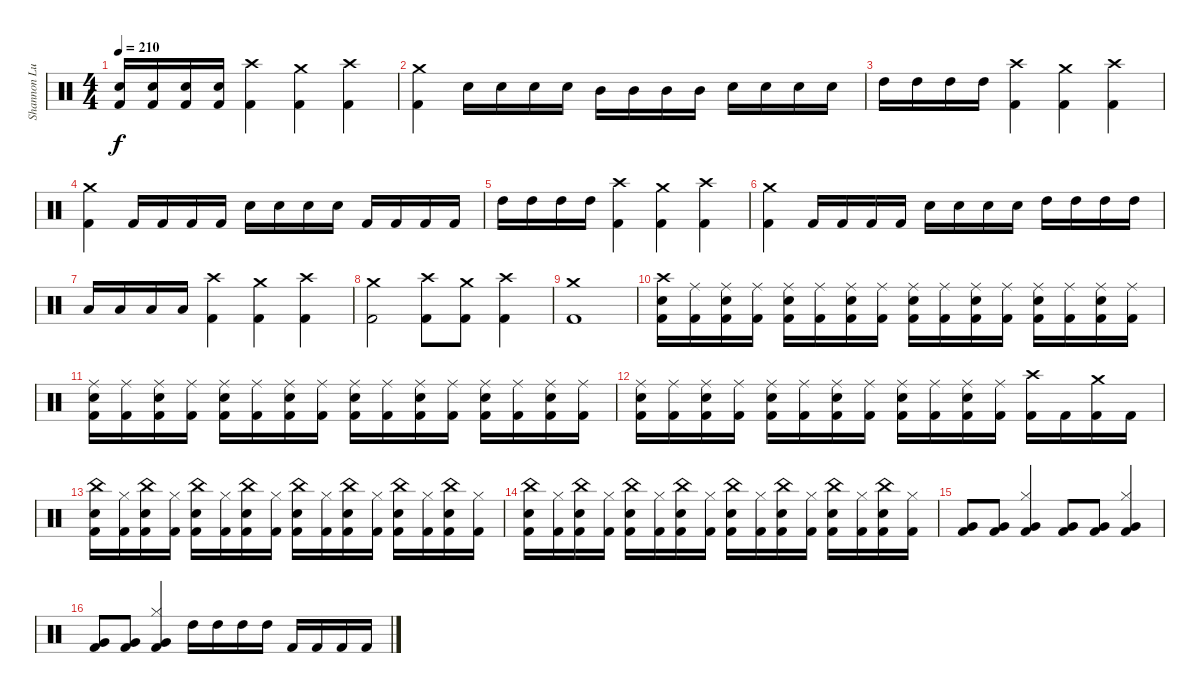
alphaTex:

\track ("Shannon Lucas" "Shannon Lu") {instrument percussion}
\staff {score}
\articulation defaults
\ts (4 4)
\tempo 210
\clef neutral
\ks c
("Electric Snare (hit)" "Kick (hit) 2").16{dy f} ("Electric Snare (hit)" "Kick (hit) 2").16 ("Electric Snare (hit)" "Kick (hit) 2").16 ("Electric Snare (hit)" "Kick (hit) 2").16 ("Crash high (hit)" "Kick (hit) 2").4 ("Crash medium (hit)" "Kick (hit) 2").4 ("Crash high (hit)" "Kick (hit) 2").4 |
("Crash medium (hit)" "Kick (hit) 2").4 "Electric Snare (hit)".16 "Electric Snare (hit)".16 "Electric Snare (hit)".16 "Electric Snare (hit)".16 "Mid Tom (hit)".16 "Mid Tom (hit)".16 "Mid Tom (hit)".16 "Mid Tom (hit)".16 "Electric Snare (hit)".16 "Electric Snare (hit)".16 "Electric Snare (hit)".16 "Electric Snare (hit)".16 |
"High Tom (hit)".16 "High Tom (hit)".16 "High Tom (hit)".16 "High Tom (hit)".16 ("Crash high (hit)" "Kick (hit) 2").4 ("Crash medium (hit)" "Kick (hit) 2").4 ("Crash high (hit)" "Kick (hit) 2").4 |
("Crash medium (hit)" "Kick (hit) 2").4 "Kick (hit) 2".16 "Kick (hit) 2".16 "Kick (hit) 2".16 "Kick (hit) 2".16 "Electric Snare (hit)".16 "Electric Snare (hit)".16 "Electric Snare (hit)".16 "Electric Snare (hit)".16 "Kick (hit) 2".16 "Kick (hit) 2".16 "Kick (hit) 2".16 "Kick (hit) 2".16 |
"High Tom (hit)".16 "High Tom (hit)".16 "High Tom (hit)".16 "High Tom (hit)".16 ("Crash high (hit)" "Kick (hit) 2").4 ("Crash medium (hit)" "Kick (hit) 2").4 ("Crash high (hit)" "Kick (hit) 2").4 |
("Crash medium (hit)" "Kick (hit) 2").4 "Kick (hit) 2".16 "Kick (hit) 2".16 "Kick (hit) 2".16 "Kick (hit) 2".16 "Electric Snare (hit)".16 "Electric Snare (hit)".16 "Electric Snare (hit)".16 "Electric Snare (hit)".16 "High Tom (hit)".16 "High Tom (hit)".16 "High Tom (hit)".16 "High Tom (hit)".16 |
"Low Tom (hit)".16 "Low Tom (hit)".16 "Low Tom (hit)".16 "Low Tom (hit)".16 ("Crash high (hit)" "Kick (hit) 2").4 ("Crash medium (hit)" "Kick (hit) 2").4 ("Crash high (hit)" "Kick (hit) 2").4 |
("Crash medium (hit)" "Kick (hit) 2").2 ("Crash high (hit)" "Kick (hit) 2").8 ("Crash medium (hit)" "Kick (hit) 2").8 ("Crash high (hit)" "Kick (hit) 2").4 |
("Crash medium (hit)" "Kick (hit) 2").1 |
("Crash high (hit)" "Electric Snare (hit)" "Kick (hit) 2").16 ("Ride (middle)" "Kick (hit) 2").16 ("Ride (middle)" "Electric Snare (hit)" "Kick (hit) 2").16 ("Ride (middle)" "Kick (hit) 2").16 ("Ride (middle)" "Electric Snare (hit)" "Kick (hit) 2").16 ("Ride (middle)" "Kick (hit) 2").16 ("Ride (middle)" "Electric Snare (hit)" "Kick (hit) 2").16 ("Ride (middle)" "Kick (hit) 2").16 ("Ride (middle)" "Electric Snare (hit)" "Kick (hit) 2").16 ("Ride (middle)" "Kick (hit) 2").16 ("Ride (middle)" "Electric Snare (hit)" "Kick (hit) 2").16 ("Ride (middle)" "Kick (hit) 2").16 ("Ride (middle)" "Electric Snare (hit)" "Kick (hit) 2").16 ("Ride (middle)" "Kick (hit) 2").16 ("Ride (middle)" "Electric Snare (hit)" "Kick (hit) 2").16 ("Ride (middle)" "Kick (hit) 2").16 |
("Ride (middle)" "Electric Snare (hit)" "Kick (hit) 2").16 ("Ride (middle)" "Kick (hit) 2").16 ("Ride (middle)" "Electric Snare (hit)" "Kick (hit) 2").16 ("Ride (middle)" "Kick (hit) 2").16 ("Ride (middle)" "Electric Snare (hit)" "Kick (hit) 2").16 ("Ride (middle)" "Kick (hit) 2").16 ("Ride (middle)" "Electric Snare (hit)" "Kick (hit) 2").16 ("Ride (middle)" "Kick (hit) 2").16 ("Ride (middle)" "Electric Snare (hit)" "Kick (hit) 2").16 ("Ride (middle)" "Kick (hit) 2").16 ("Ride (middle)" "Electric Snare (hit)" "Kick (hit) 2").16 ("Ride (middle)" "Kick (hit) 2").16 ("Ride (middle)" "Electric Snare (hit)" "Kick (hit) 2").16 ("Ride (middle)" "Kick (hit) 2").16 ("Ride (middle)" "Electric Snare (hit)" "Kick (hit) 2").16 ("Ride (middle)" "Kick (hit) 2").16 |
("Ride (middle)" "Electric Snare (hit)" "Kick (hit) 2").16 ("Ride (middle)" "Kick (hit) 2").16 ("Ride (middle)" "Electric Snare (hit)" "Kick (hit) 2").16 ("Ride (middle)" "Kick (hit) 2").16 ("Ride (middle)" "Electric Snare (hit)" "Kick (hit) 2").16 ("Ride (middle)" "Kick (hit) 2").16 ("Ride (middle)" "Electric Snare (hit)" "Kick (hit) 2").16 ("Ride (middle)" "Kick (hit) 2").16 ("Ride (middle)" "Electric Snare (hit)" "Kick (hit) 2").16 ("Ride (middle)" "Kick (hit) 2").16 ("Ride (middle)" "Electric Snare (hit)" "Kick (hit) 2").16 ("Ride (middle)" "Kick (hit) 2").16 ("Crash high (hit)" "Kick (hit) 2").16 "Kick (hit) 2".16 ("Crash medium (hit)" "Kick (hit) 2").16 "Kick (hit) 2".16 |
("China (hit)" "Electric Snare (hit)" "Kick (hit) 2").16 ("Hi-Hat (closed)" "Kick (hit) 2").16 ("China (hit)" "Electric Snare (hit)" "Kick (hit) 2").16 ("Hi-Hat (closed)" "Kick (hit) 2").16 ("China (hit)" "Electric Snare (hit)" "Kick (hit) 2").16 ("Hi-Hat (closed)" "Kick (hit) 2").16 ("China (hit)" "Electric Snare (hit)" "Kick (hit) 2").16 ("Hi-Hat (closed)" "Kick (hit) 2").16 ("China (hit)" "Electric Snare (hit)" "Kick (hit) 2").16 ("Hi-Hat (closed)" "Kick (hit) 2").16 ("China (hit)" "Electric Snare (hit)" "Kick (hit) 2").16 ("Hi-Hat (closed)" "Kick (hit) 2").16 ("China (hit)" "Electric Snare (hit)" "Kick (hit) 2").16 ("Hi-Hat (closed)" "Kick (hit) 2").16 ("China (hit)" "Electric Snare (hit)" "Kick (hit) 2").16 ("Hi-Hat (closed)" "Kick (hit) 2").16 |
("China (hit)" "Electric Snare (hit)" "Kick (hit) 2").16 ("Hi-Hat (closed)" "Kick (hit) 2").16 ("China (hit)" "Electric Snare (hit)" "Kick (hit) 2").16 ("Hi-Hat (closed)" "Kick (hit) 2").16 ("China (hit)" "Electric Snare (hit)" "Kick (hit) 2").16 ("Hi-Hat (closed)" "Kick (hit) 2").16 ("China (hit)" "Electric Snare (hit)" "Kick (hit) 2").16 ("Hi-Hat (closed)" "Kick (hit) 2").16 ("China (hit)" "Electric Snare (hit)" "Kick (hit) 2").16 ("Hi-Hat (closed)" "Kick (hit) 2").16 ("China (hit)" "Electric Snare (hit)" "Kick (hit) 2").16 ("Hi-Hat (closed)" "Kick (hit) 2").16 ("China (hit)" "Electric Snare (hit)" "Kick (hit) 2").16 ("Hi-Hat (closed)" "Kick (hit) 2").16 ("China (hit)" "Electric Snare (hit)" "Kick (hit) 2").16 ("Hi-Hat (closed)" "Kick (hit) 2").16 |
("Very Low Tom (hit)" "Kick (hit) 2").8 ("Very Low Tom (hit)" "Kick (hit) 2").8 ("Hi-Hat (closed)" "Very Low Tom (hit)" "Kick (hit) 2").4 ("Very Low Tom (hit)" "Kick (hit) 2").8 ("Very Low Tom (hit)" "Kick (hit) 2").8 ("Hi-Hat (closed)" "Very Low Tom (hit)" "Kick (hit) 2").4 |
("Very Low Tom (hit)" "Kick (hit) 2").8 ("Very Low Tom (hit)" "Kick (hit) 2").8 ("Hi-Hat (closed)" "Very Low Tom (hit)" "Kick (hit) 2").4 "High Tom (hit)".16 "High Tom (hit)".16 "High Tom (hit)".16 "High Tom (hit)".16 "Kick (hit) 2".16 "Kick (hit) 2".16 "Kick (hit) 2".16 "Kick (hit) 2".16
